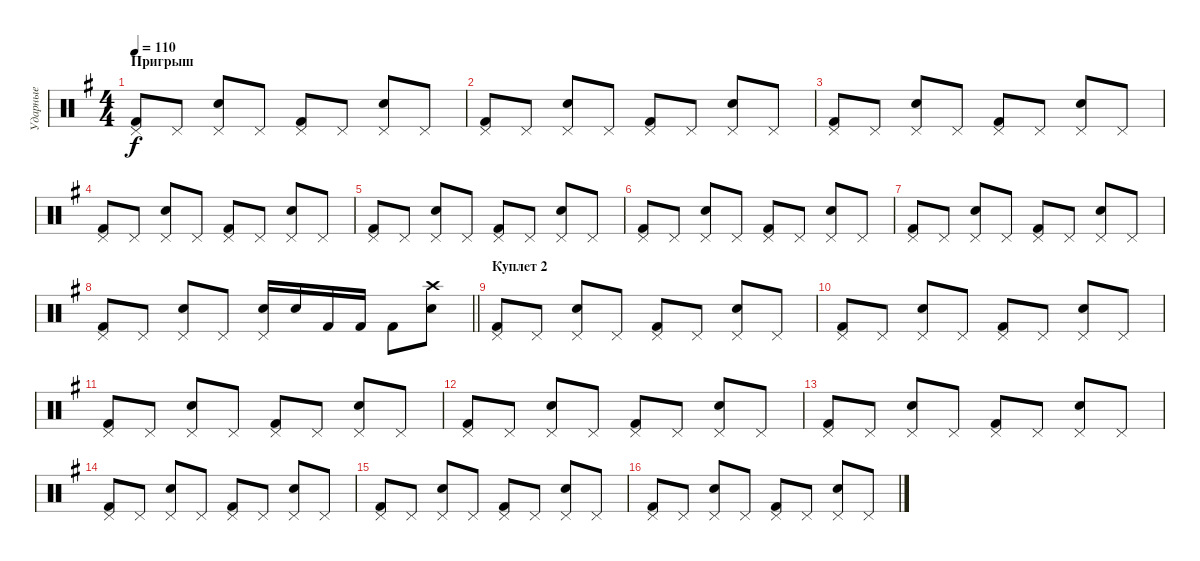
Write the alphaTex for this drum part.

\track ("Ударные" "Ударные") {instrument percussion}
\staff {score}
\articulation defaults
\ts (4 4)
\section ("" "Пригрыш")
\tempo 110
\clef neutral
\ks eminor
("Kick (hit) 2" "Pedal Hi-Hat (hit)").8{dy f} "Pedal Hi-Hat (hit)".8 ("Snare (hit) 2" "Pedal Hi-Hat (hit)").8 "Pedal Hi-Hat (hit)".8 ("Kick (hit) 2" "Pedal Hi-Hat (hit)").8 "Pedal Hi-Hat (hit)".8 ("Snare (hit) 2" "Pedal Hi-Hat (hit)").8 "Pedal Hi-Hat (hit)".8 |
("Kick (hit) 2" "Pedal Hi-Hat (hit)").8 "Pedal Hi-Hat (hit)".8 ("Snare (hit) 2" "Pedal Hi-Hat (hit)").8 "Pedal Hi-Hat (hit)".8 ("Kick (hit) 2" "Pedal Hi-Hat (hit)").8 "Pedal Hi-Hat (hit)".8 ("Snare (hit) 2" "Pedal Hi-Hat (hit)").8 "Pedal Hi-Hat (hit)".8 |
("Kick (hit) 2" "Pedal Hi-Hat (hit)").8 "Pedal Hi-Hat (hit)".8 ("Snare (hit) 2" "Pedal Hi-Hat (hit)").8 "Pedal Hi-Hat (hit)".8 ("Kick (hit) 2" "Pedal Hi-Hat (hit)").8 "Pedal Hi-Hat (hit)".8 ("Snare (hit) 2" "Pedal Hi-Hat (hit)").8 "Pedal Hi-Hat (hit)".8 |
("Kick (hit) 2" "Pedal Hi-Hat (hit)").8 "Pedal Hi-Hat (hit)".8 ("Snare (hit) 2" "Pedal Hi-Hat (hit)").8 "Pedal Hi-Hat (hit)".8 ("Kick (hit) 2" "Pedal Hi-Hat (hit)").8 "Pedal Hi-Hat (hit)".8 ("Snare (hit) 2" "Pedal Hi-Hat (hit)").8 "Pedal Hi-Hat (hit)".8 |
("Kick (hit) 2" "Pedal Hi-Hat (hit)").8 "Pedal Hi-Hat (hit)".8 ("Snare (hit) 2" "Pedal Hi-Hat (hit)").8 "Pedal Hi-Hat (hit)".8 ("Kick (hit) 2" "Pedal Hi-Hat (hit)").8 "Pedal Hi-Hat (hit)".8 ("Snare (hit) 2" "Pedal Hi-Hat (hit)").8 "Pedal Hi-Hat (hit)".8 |
("Kick (hit) 2" "Pedal Hi-Hat (hit)").8 "Pedal Hi-Hat (hit)".8 ("Snare (hit) 2" "Pedal Hi-Hat (hit)").8 "Pedal Hi-Hat (hit)".8 ("Kick (hit) 2" "Pedal Hi-Hat (hit)").8 "Pedal Hi-Hat (hit)".8 ("Snare (hit) 2" "Pedal Hi-Hat (hit)").8 "Pedal Hi-Hat (hit)".8 |
("Kick (hit) 2" "Pedal Hi-Hat (hit)").8 "Pedal Hi-Hat (hit)".8 ("Snare (hit) 2" "Pedal Hi-Hat (hit)").8 "Pedal Hi-Hat (hit)".8 ("Kick (hit) 2" "Pedal Hi-Hat (hit)").8 "Pedal Hi-Hat (hit)".8 ("Snare (hit) 2" "Pedal Hi-Hat (hit)").8 "Pedal Hi-Hat (hit)".8 |
\barLineRight lightlight
("Kick (hit) 2" "Pedal Hi-Hat (hit)").8 "Pedal Hi-Hat (hit)".8 ("Snare (hit) 2" "Pedal Hi-Hat (hit)").8 "Pedal Hi-Hat (hit)".8 ("Snare (hit) 2" "Pedal Hi-Hat (hit)").16 "Snare (hit) 2".16 "Kick (hit) 2".16 "Kick (hit) 2".16 "Kick (hit) 2".8 ("Crash high (hit)" "Snare (hit) 2").8 |
\section ("" "Куплет 2")
("Kick (hit) 2" "Pedal Hi-Hat (hit)").8 "Pedal Hi-Hat (hit)".8 ("Snare (hit) 2" "Pedal Hi-Hat (hit)").8 "Pedal Hi-Hat (hit)".8 ("Kick (hit) 2" "Pedal Hi-Hat (hit)").8 "Pedal Hi-Hat (hit)".8 ("Snare (hit) 2" "Pedal Hi-Hat (hit)").8 "Pedal Hi-Hat (hit)".8 |
("Kick (hit) 2" "Pedal Hi-Hat (hit)").8 "Pedal Hi-Hat (hit)".8 ("Snare (hit) 2" "Pedal Hi-Hat (hit)").8 "Pedal Hi-Hat (hit)".8 ("Kick (hit) 2" "Pedal Hi-Hat (hit)").8 "Pedal Hi-Hat (hit)".8 ("Snare (hit) 2" "Pedal Hi-Hat (hit)").8 "Pedal Hi-Hat (hit)".8 |
("Kick (hit) 2" "Pedal Hi-Hat (hit)").8 "Pedal Hi-Hat (hit)".8 ("Snare (hit) 2" "Pedal Hi-Hat (hit)").8 "Pedal Hi-Hat (hit)".8 ("Kick (hit) 2" "Pedal Hi-Hat (hit)").8 "Pedal Hi-Hat (hit)".8 ("Snare (hit) 2" "Pedal Hi-Hat (hit)").8 "Pedal Hi-Hat (hit)".8 |
("Kick (hit) 2" "Pedal Hi-Hat (hit)").8 "Pedal Hi-Hat (hit)".8 ("Snare (hit) 2" "Pedal Hi-Hat (hit)").8 "Pedal Hi-Hat (hit)".8 ("Kick (hit) 2" "Pedal Hi-Hat (hit)").8 "Pedal Hi-Hat (hit)".8 ("Snare (hit) 2" "Pedal Hi-Hat (hit)").8 "Pedal Hi-Hat (hit)".8 |
("Kick (hit) 2" "Pedal Hi-Hat (hit)").8 "Pedal Hi-Hat (hit)".8 ("Snare (hit) 2" "Pedal Hi-Hat (hit)").8 "Pedal Hi-Hat (hit)".8 ("Kick (hit) 2" "Pedal Hi-Hat (hit)").8 "Pedal Hi-Hat (hit)".8 ("Snare (hit) 2" "Pedal Hi-Hat (hit)").8 "Pedal Hi-Hat (hit)".8 |
("Kick (hit) 2" "Pedal Hi-Hat (hit)").8 "Pedal Hi-Hat (hit)".8 ("Snare (hit) 2" "Pedal Hi-Hat (hit)").8 "Pedal Hi-Hat (hit)".8 ("Kick (hit) 2" "Pedal Hi-Hat (hit)").8 "Pedal Hi-Hat (hit)".8 ("Snare (hit) 2" "Pedal Hi-Hat (hit)").8 "Pedal Hi-Hat (hit)".8 |
("Kick (hit) 2" "Pedal Hi-Hat (hit)").8 "Pedal Hi-Hat (hit)".8 ("Snare (hit) 2" "Pedal Hi-Hat (hit)").8 "Pedal Hi-Hat (hit)".8 ("Kick (hit) 2" "Pedal Hi-Hat (hit)").8 "Pedal Hi-Hat (hit)".8 ("Snare (hit) 2" "Pedal Hi-Hat (hit)").8 "Pedal Hi-Hat (hit)".8 |
("Kick (hit) 2" "Pedal Hi-Hat (hit)").8 "Pedal Hi-Hat (hit)".8 ("Snare (hit) 2" "Pedal Hi-Hat (hit)").8 "Pedal Hi-Hat (hit)".8 ("Kick (hit) 2" "Pedal Hi-Hat (hit)").8 "Pedal Hi-Hat (hit)".8 ("Snare (hit) 2" "Pedal Hi-Hat (hit)").8 "Pedal Hi-Hat (hit)".8
